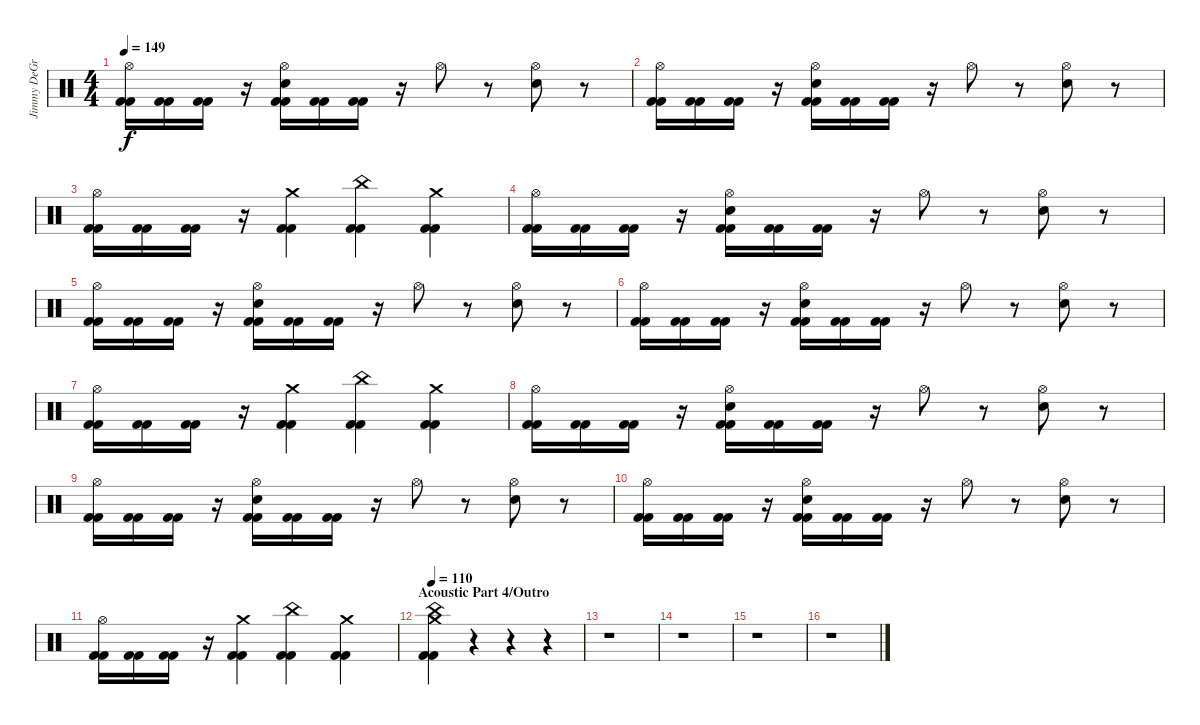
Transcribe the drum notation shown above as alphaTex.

\track ("Jimmy DeGrasso" "Jimmy DeGr") {instrument percussion}
\staff {score}
\articulation defaults
\ts (4 4)
\tempo 149
\clef neutral
\ks c
("Hi-Hat (open)" "Kick (hit) 2" "Kick (hit) 2").16{dy f} ("Kick (hit) 2" "Kick (hit) 2").16 ("Kick (hit) 2" "Kick (hit) 2").16 r.16 ("Hi-Hat (open)" "Snare (hit) 2" "Kick (hit) 2" "Kick (hit) 2").16 ("Kick (hit) 2" "Kick (hit) 2").16 ("Kick (hit) 2" "Kick (hit) 2").16 r.16 "Hi-Hat (open)".8 r.8 ("Hi-Hat (open)" "Snare (hit) 2").8 r.8 |
("Hi-Hat (open)" "Kick (hit) 2" "Kick (hit) 2").16 ("Kick (hit) 2" "Kick (hit) 2").16 ("Kick (hit) 2" "Kick (hit) 2").16 r.16 ("Hi-Hat (open)" "Snare (hit) 2" "Kick (hit) 2" "Kick (hit) 2").16 ("Kick (hit) 2" "Kick (hit) 2").16 ("Kick (hit) 2" "Kick (hit) 2").16 r.16 "Hi-Hat (open)".8 r.8 ("Hi-Hat (open)" "Snare (hit) 2").8 r.8 |
("Hi-Hat (open)" "Kick (hit) 2" "Kick (hit) 2").16 ("Kick (hit) 2" "Kick (hit) 2").16 ("Kick (hit) 2" "Kick (hit) 2").16 r.16 ("Crash medium (hit)" "Kick (hit) 2" "Kick (hit) 2").4 ("China (hit)" "Kick (hit) 2" "Kick (hit) 2").4 ("Crash medium (hit)" "Kick (hit) 2" "Kick (hit) 2").4 |
("Hi-Hat (open)" "Kick (hit) 2" "Kick (hit) 2").16 ("Kick (hit) 2" "Kick (hit) 2").16 ("Kick (hit) 2" "Kick (hit) 2").16 r.16 ("Hi-Hat (open)" "Snare (hit) 2" "Kick (hit) 2" "Kick (hit) 2").16 ("Kick (hit) 2" "Kick (hit) 2").16 ("Kick (hit) 2" "Kick (hit) 2").16 r.16 "Hi-Hat (open)".8 r.8 ("Hi-Hat (open)" "Snare (hit) 2").8 r.8 |
("Hi-Hat (open)" "Kick (hit) 2" "Kick (hit) 2").16 ("Kick (hit) 2" "Kick (hit) 2").16 ("Kick (hit) 2" "Kick (hit) 2").16 r.16 ("Hi-Hat (open)" "Snare (hit) 2" "Kick (hit) 2" "Kick (hit) 2").16 ("Kick (hit) 2" "Kick (hit) 2").16 ("Kick (hit) 2" "Kick (hit) 2").16 r.16 "Hi-Hat (open)".8 r.8 ("Hi-Hat (open)" "Snare (hit) 2").8 r.8 |
("Hi-Hat (open)" "Kick (hit) 2" "Kick (hit) 2").16 ("Kick (hit) 2" "Kick (hit) 2").16 ("Kick (hit) 2" "Kick (hit) 2").16 r.16 ("Hi-Hat (open)" "Snare (hit) 2" "Kick (hit) 2" "Kick (hit) 2").16 ("Kick (hit) 2" "Kick (hit) 2").16 ("Kick (hit) 2" "Kick (hit) 2").16 r.16 "Hi-Hat (open)".8 r.8 ("Hi-Hat (open)" "Snare (hit) 2").8 r.8 |
("Hi-Hat (open)" "Kick (hit) 2" "Kick (hit) 2").16 ("Kick (hit) 2" "Kick (hit) 2").16 ("Kick (hit) 2" "Kick (hit) 2").16 r.16 ("Crash medium (hit)" "Kick (hit) 2" "Kick (hit) 2").4 ("China (hit)" "Kick (hit) 2" "Kick (hit) 2").4 ("Crash medium (hit)" "Kick (hit) 2" "Kick (hit) 2").4 |
("Hi-Hat (open)" "Kick (hit) 2" "Kick (hit) 2").16 ("Kick (hit) 2" "Kick (hit) 2").16 ("Kick (hit) 2" "Kick (hit) 2").16 r.16 ("Hi-Hat (open)" "Snare (hit) 2" "Kick (hit) 2" "Kick (hit) 2").16 ("Kick (hit) 2" "Kick (hit) 2").16 ("Kick (hit) 2" "Kick (hit) 2").16 r.16 "Hi-Hat (open)".8 r.8 ("Hi-Hat (open)" "Snare (hit) 2").8 r.8 |
("Hi-Hat (open)" "Kick (hit) 2" "Kick (hit) 2").16 ("Kick (hit) 2" "Kick (hit) 2").16 ("Kick (hit) 2" "Kick (hit) 2").16 r.16 ("Hi-Hat (open)" "Snare (hit) 2" "Kick (hit) 2" "Kick (hit) 2").16 ("Kick (hit) 2" "Kick (hit) 2").16 ("Kick (hit) 2" "Kick (hit) 2").16 r.16 "Hi-Hat (open)".8 r.8 ("Hi-Hat (open)" "Snare (hit) 2").8 r.8 |
("Hi-Hat (open)" "Kick (hit) 2" "Kick (hit) 2").16 ("Kick (hit) 2" "Kick (hit) 2").16 ("Kick (hit) 2" "Kick (hit) 2").16 r.16 ("Hi-Hat (open)" "Snare (hit) 2" "Kick (hit) 2" "Kick (hit) 2").16 ("Kick (hit) 2" "Kick (hit) 2").16 ("Kick (hit) 2" "Kick (hit) 2").16 r.16 "Hi-Hat (open)".8 r.8 ("Hi-Hat (open)" "Snare (hit) 2").8 r.8 |
("Hi-Hat (open)" "Kick (hit) 2" "Kick (hit) 2").16 ("Kick (hit) 2" "Kick (hit) 2").16 ("Kick (hit) 2" "Kick (hit) 2").16 r.16 ("Crash medium (hit)" "Kick (hit) 2" "Kick (hit) 2").4 ("China (hit)" "Kick (hit) 2" "Kick (hit) 2").4 ("Crash medium (hit)" "Kick (hit) 2" "Kick (hit) 2").4 |
\section ("" "Acoustic Part 4/Outro")
\tempo 110
("Crash medium (hit)" "China (hit)" "Kick (hit) 2" "Kick (hit) 2").4 r.4 r.4 r.4 |
r.1 |
r.1 |
r.1 |
r.1
